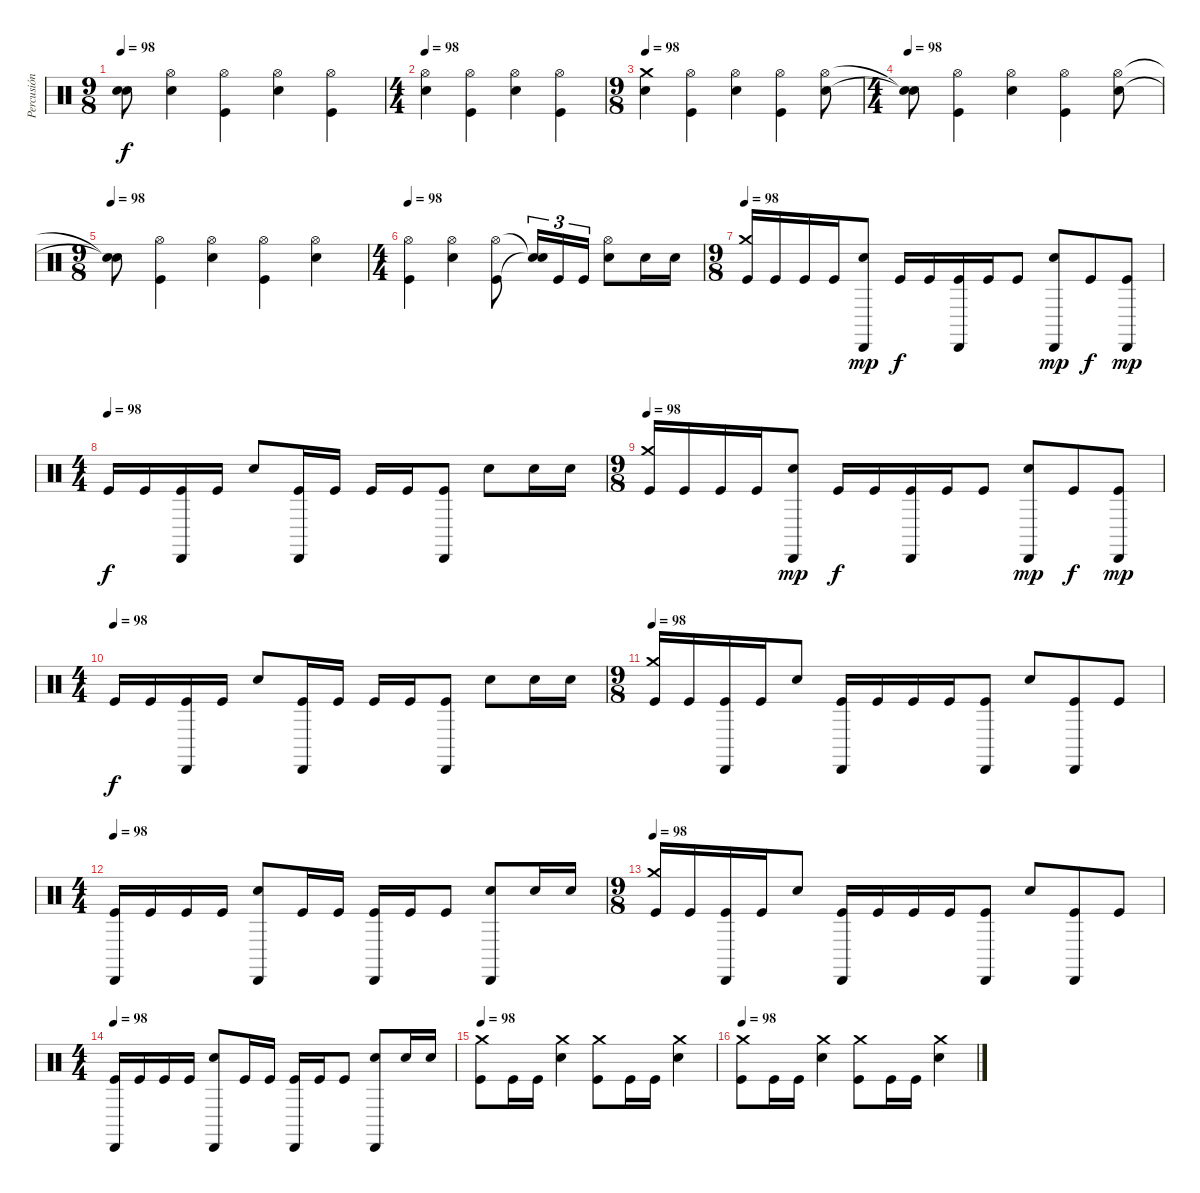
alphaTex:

\track ("Percusión" "Percusión") {instrument percussion}
\staff {score}
\articulation defaults
\ts (9 8)
\tempo 98
\clef neutral
\ks c
("Snare (hit)"{t} "Snare (hit)"{t}).8{dy f} ("Hi-Hat (open)" "Electric Snare (hit)").4 ("Hi-Hat (open)" "Kick (hit)").4 ("Hi-Hat (open)" "Electric Snare (hit)").4 ("Hi-Hat (open)" "Kick (hit)").4 |
\ts (4 4)
\tempo 98
("Hi-Hat (open)" "Electric Snare (hit)").4 ("Hi-Hat (open)" "Kick (hit)").4 ("Hi-Hat (open)" "Electric Snare (hit)").4 ("Hi-Hat (open)" "Kick (hit)").4 |
\ts (9 8)
\tempo 98
("Crash medium (hit)" "Electric Snare (hit)").4 ("Hi-Hat (open)" "Kick (hit)").4 ("Hi-Hat (open)" "Electric Snare (hit)").4 ("Hi-Hat (open)" "Kick (hit)").4 ("Hi-Hat (open)" "Electric Snare (hit)").8 |
\ts (4 4)
\tempo 98
("Snare (hit)"{t} "Snare (hit)"{t}).8 ("Hi-Hat (open)" "Kick (hit)").4 ("Hi-Hat (open)" "Electric Snare (hit)").4 ("Hi-Hat (open)" "Kick (hit)").4 ("Hi-Hat (open)" "Electric Snare (hit)").8 |
\ts (9 8)
\tempo 98
("Snare (hit)"{t} "Snare (hit)"{t}).8 ("Hi-Hat (open)" "Kick (hit)").4 ("Hi-Hat (open)" "Electric Snare (hit)").4 ("Hi-Hat (open)" "Kick (hit)").4 ("Hi-Hat (open)" "Electric Snare (hit)").4 |
\ts (4 4)
\tempo 98
("Hi-Hat (open)" "Kick (hit)").4 ("Hi-Hat (open)" "Electric Snare (hit)").4 ("Hi-Hat (open)" "Kick (hit)").8 ("Snare (hit)"{t} "Snare (hit)"{t}).16{tu (3 2)} "Kick (hit)".16{tu (3 2)} "Kick (hit)".16{tu (3 2)} ("Hi-Hat (open)" "Electric Snare (hit)").8 "Electric Snare (hit)".16 "Electric Snare (hit)".16 |
\ts (9 8)
\tempo 98
("Crash medium (hit)" "Kick (hit)").16 "Kick (hit)".16 "Kick (hit)".16 "Kick (hit)".16 ("Cabasa (hit)" "Electric Snare (hit)").8{dy mp} "Kick (hit)".16{dy f} "Kick (hit)".16 ("Cabasa (hit)" "Kick (hit)").16 "Kick (hit)".16 "Kick (hit)".8 ("Cabasa (hit)" "Electric Snare (hit)").8{dy mp} "Kick (hit)".8{dy f} ("Cabasa (hit)" "Kick (hit)").8{dy mp} |
\ts (4 4)
\tempo (98)
"Kick (hit)".16{dy f} "Kick (hit)".16 ("Cabasa (hit)" "Kick (hit)").16 "Kick (hit)".16 "Electric Snare (hit)".8 ("Cabasa (hit)" "Kick (hit)").16 "Kick (hit)".16 "Kick (hit)".16 "Kick (hit)".16 ("Cabasa (hit)" "Kick (hit)").8 "Electric Snare (hit)".8 "Electric Snare (hit)".16 "Electric Snare (hit)".16 |
\ts (9 8)
\tempo 98
("Crash medium (hit)" "Kick (hit)").16 "Kick (hit)".16 "Kick (hit)".16 "Kick (hit)".16 ("Cabasa (hit)" "Electric Snare (hit)").8{dy mp} "Kick (hit)".16{dy f} "Kick (hit)".16 ("Cabasa (hit)" "Kick (hit)").16 "Kick (hit)".16 "Kick (hit)".8 ("Cabasa (hit)" "Electric Snare (hit)").8{dy mp} "Kick (hit)".8{dy f} ("Cabasa (hit)" "Kick (hit)").8{dy mp} |
\ts (4 4)
\tempo (98)
"Kick (hit)".16{dy f} "Kick (hit)".16 ("Cabasa (hit)" "Kick (hit)").16 "Kick (hit)".16 "Electric Snare (hit)".8 ("Cabasa (hit)" "Kick (hit)").16 "Kick (hit)".16 "Kick (hit)".16 "Kick (hit)".16 ("Cabasa (hit)" "Kick (hit)").8 "Electric Snare (hit)".8 "Electric Snare (hit)".16 "Electric Snare (hit)".16 |
\ts (9 8)
\tempo 98
("Crash medium (hit)" "Kick (hit)").16 "Kick (hit)".16 ("Cabasa (hit)" "Kick (hit)").16 "Kick (hit)".16 "Electric Snare (hit)".8 ("Cabasa (hit)" "Kick (hit)").16 "Kick (hit)".16 "Kick (hit)".16 "Kick (hit)".16 ("Cabasa (hit)" "Kick (hit)").8 "Electric Snare (hit)".8 ("Cabasa (hit)" "Kick (hit)").8 "Kick (hit)".8 |
\ts (4 4)
\tempo 98
("Cabasa (hit)" "Kick (hit)").16 "Kick (hit)".16 "Kick (hit)".16 "Kick (hit)".16 ("Cabasa (hit)" "Electric Snare (hit)").8 "Kick (hit)".16 "Kick (hit)".16 ("Cabasa (hit)" "Kick (hit)").16 "Kick (hit)".16 "Kick (hit)".8 ("Cabasa (hit)" "Electric Snare (hit)").8 "Electric Snare (hit)".16 "Electric Snare (hit)".16 |
\ts (9 8)
\tempo 98
("Crash medium (hit)" "Kick (hit)").16 "Kick (hit)".16 ("Cabasa (hit)" "Kick (hit)").16 "Kick (hit)".16 "Electric Snare (hit)".8 ("Cabasa (hit)" "Kick (hit)").16 "Kick (hit)".16 "Kick (hit)".16 "Kick (hit)".16 ("Cabasa (hit)" "Kick (hit)").8 "Electric Snare (hit)".8 ("Cabasa (hit)" "Kick (hit)").8 "Kick (hit)".8 |
\ts (4 4)
\tempo 98
("Cabasa (hit)" "Kick (hit)").16 "Kick (hit)".16 "Kick (hit)".16 "Kick (hit)".16 ("Cabasa (hit)" "Electric Snare (hit)").8 "Kick (hit)".16 "Kick (hit)".16 ("Cabasa (hit)" "Kick (hit)").16 "Kick (hit)".16 "Kick (hit)".8 ("Cabasa (hit)" "Electric Snare (hit)").8 "Electric Snare (hit)".16 "Electric Snare (hit)".16 |
\tempo 98
("Crash medium (hit)" "Kick (hit)").8 "Kick (hit)".16 "Kick (hit)".16 ("Crash medium (hit)" "Electric Snare (hit)").4 ("Crash medium (hit)" "Kick (hit)").8 "Kick (hit)".16 "Kick (hit)".16 ("Crash medium (hit)" "Electric Snare (hit)").4 |
\tempo 98
("Crash medium (hit)" "Kick (hit)").8 "Kick (hit)".16 "Kick (hit)".16 ("Crash medium (hit)" "Electric Snare (hit)").4 ("Crash medium (hit)" "Kick (hit)").8 "Kick (hit)".16 "Kick (hit)".16 ("Crash medium (hit)" "Electric Snare (hit)").4
